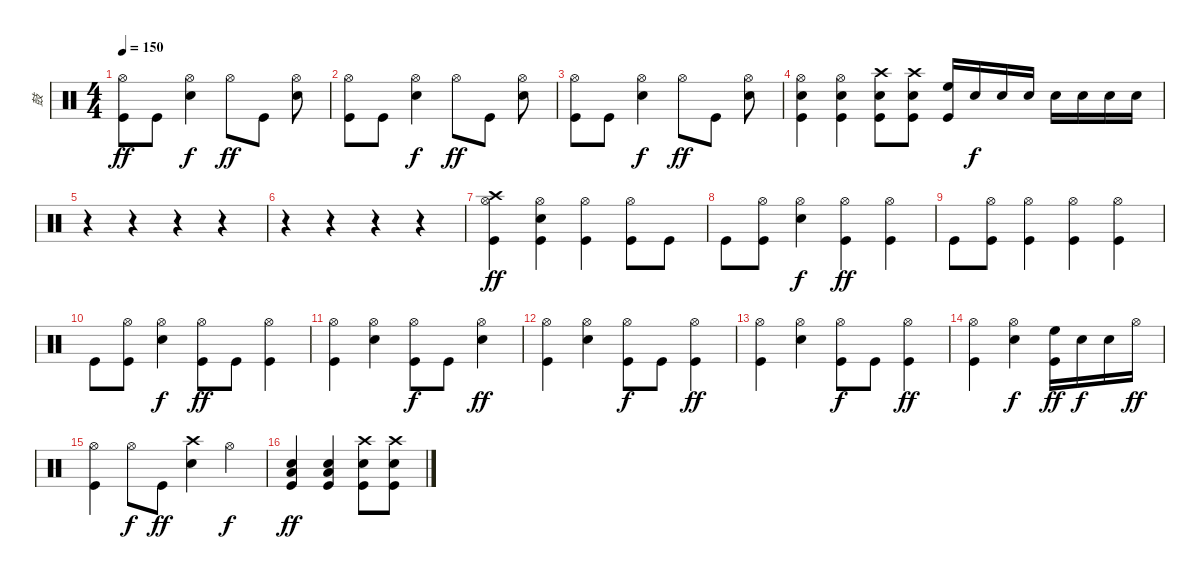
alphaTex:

\track ("鼓" "鼓") {instrument percussion}
\staff {score}
\articulation defaults
\ts (4 4)
\tempo 150
\clef neutral
\ks c
("Hi-Hat (open)" "Kick (hit)").8{dy ff} "Kick (hit)".8 ("Hi-Hat (open)" "Electric Snare (hit)").4{dy f} "Hi-Hat (open)".8{dy ff} "Kick (hit)".8 ("Hi-Hat (open)" "Electric Snare (hit)").8 |
("Hi-Hat (open)" "Kick (hit)").8 "Kick (hit)".8 ("Hi-Hat (open)" "Electric Snare (hit)").4{dy f} "Hi-Hat (open)".8{dy ff} "Kick (hit)".8 ("Hi-Hat (open)" "Electric Snare (hit)").8 |
("Hi-Hat (open)" "Kick (hit)").8 "Kick (hit)".8 ("Hi-Hat (open)" "Electric Snare (hit)").4{dy f} "Hi-Hat (open)".8{dy ff} "Kick (hit)".8 ("Hi-Hat (open)" "Electric Snare (hit)").8 |
("Hi-Hat (open)" "Electric Snare (hit)" "Kick (hit)").4 ("Hi-Hat (open)" "Electric Snare (hit)" "Kick (hit)").4 ("Crash high (hit)" "Electric Snare (hit)" "Kick (hit)").8 ("Crash high (hit)" "Electric Snare (hit)" "Kick (hit)").8 ("High Floor Tom (hit)" "Kick (hit)").16 "Snare (hit) 2".16{dy f} "Snare (hit) 2".16 "Snare (hit) 2".16 "Snare (hit) 2".16 "Snare (hit) 2".16 "Snare (hit) 2".16 "Snare (hit) 2".16 |
r.4 r.4 r.4 r.4 |
r.4 r.4 r.4 r.4 |
("Crash high (hit)" "Hi-Hat (open)" "Kick (hit)").4{dy ff} ("Hi-Hat (open)" "Electric Snare (hit)" "Kick (hit)").4 ("Hi-Hat (open)" "Kick (hit)").4 ("Hi-Hat (open)" "Kick (hit)").8 "Kick (hit)".8 |
"Kick (hit)".8 ("Hi-Hat (open)" "Kick (hit)").8 ("Hi-Hat (open)" "Electric Snare (hit)").4{dy f} ("Hi-Hat (open)" "Kick (hit)").4{dy ff} ("Hi-Hat (open)" "Kick (hit)").4 |
"Kick (hit)".8 ("Hi-Hat (open)" "Kick (hit)").8 ("Hi-Hat (open)" "Kick (hit)").4 ("Hi-Hat (open)" "Kick (hit)").4 ("Hi-Hat (open)" "Kick (hit)").4 |
"Kick (hit)".8 ("Hi-Hat (open)" "Kick (hit)").8 ("Hi-Hat (open)" "Electric Snare (hit)").4{dy f} ("Hi-Hat (open)" "Kick (hit)").8{dy ff} "Kick (hit)".8 ("Hi-Hat (open)" "Kick (hit)").4 |
("Hi-Hat (open)" "Kick (hit)").4 ("Hi-Hat (open)" "Electric Snare (hit)").4 ("Hi-Hat (open)" "Kick (hit)").8{dy f} "Kick (hit)".8 ("Hi-Hat (open)" "Electric Snare (hit)").4{dy ff} |
("Hi-Hat (open)" "Kick (hit)").4 ("Hi-Hat (open)" "Electric Snare (hit)").4 ("Hi-Hat (open)" "Kick (hit)").8{dy f} "Kick (hit)".8 ("Hi-Hat (open)" "Kick (hit)").4{dy ff} |
("Hi-Hat (open)" "Kick (hit)").4 ("Hi-Hat (open)" "Electric Snare (hit)").4 ("Hi-Hat (open)" "Kick (hit)").8{dy f} "Kick (hit)".8 ("Hi-Hat (open)" "Kick (hit)").4{dy ff} |
("Hi-Hat (open)" "Kick (hit)").4 ("Hi-Hat (open)" "Electric Snare (hit)").4{dy f} ("High Floor Tom (hit)" "Kick (hit)").16{dy ff} "Electric Snare (hit)".16{dy f} "Electric Snare (hit)".16 "Hi-Hat (open)".16{dy ff} |
("Hi-Hat (open)" "Kick (hit)").4 "Hi-Hat (open)".8{dy f} "Kick (hit)".8{dy ff} ("Crash high (hit)" "Electric Snare (hit)").4 "Hi-Hat (open)".4{dy f} |
("Low Tom (hit)" "Electric Snare (hit)" "Kick (hit)").4{dy ff} ("Low Tom (hit)" "Electric Snare (hit)" "Kick (hit)").4 ("Crash high (hit)" "Electric Snare (hit)" "Kick (hit)").8 ("Crash high (hit)" "Electric Snare (hit)" "Kick (hit)").8
